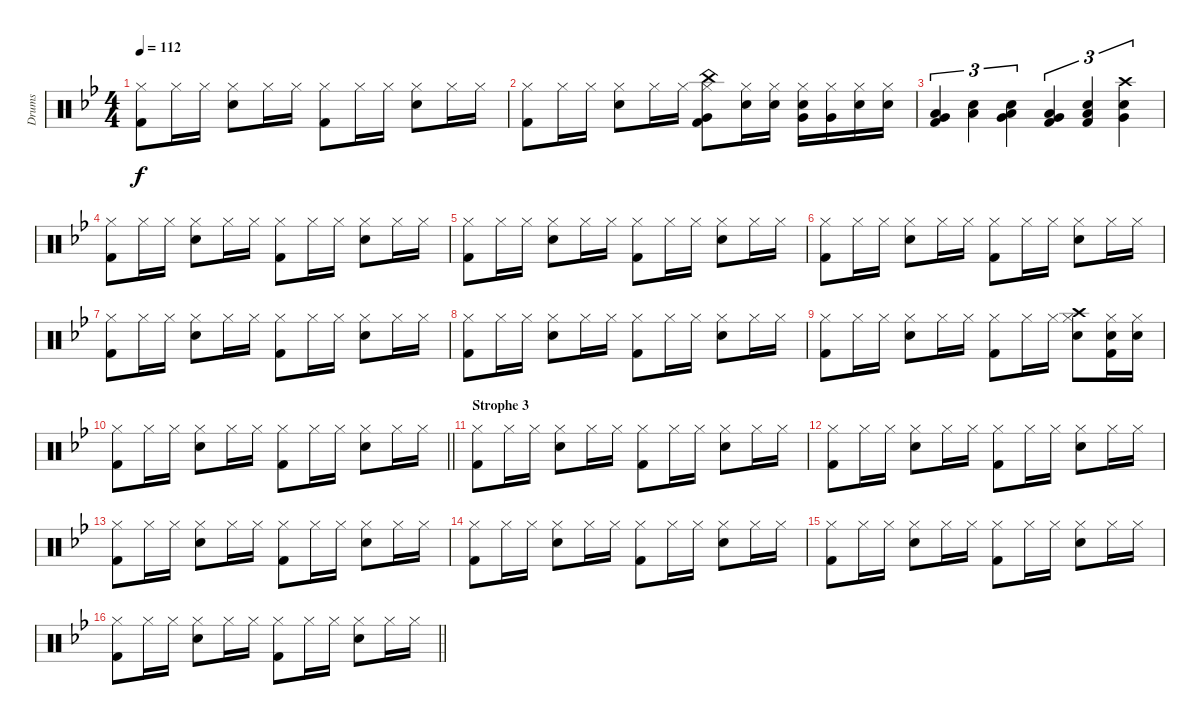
\track ("Drums" "Drums") {instrument percussion}
\staff {score}
\articulation defaults
\ts (4 4)
\tempo 112
\clef neutral
\ks bb
("Hi-Hat (closed)" "Kick (hit) 2").8{dy f} "Hi-Hat (closed)".16 "Hi-Hat (closed)".16 ("Snare (hit) 2" "Hi-Hat (closed)").8 "Hi-Hat (closed)".16 "Hi-Hat (closed)".16 ("Hi-Hat (closed)" "Kick (hit) 2").8 "Hi-Hat (closed)".16 "Hi-Hat (closed)".16 ("Snare (hit) 2" "Hi-Hat (closed)").8 "Hi-Hat (closed)".16 "Hi-Hat (closed)".16 |
("Hi-Hat (closed)" "Kick (hit) 2").8 "Hi-Hat (closed)".16 "Hi-Hat (closed)".16 ("Snare (hit) 2" "Hi-Hat (closed)").8 "Hi-Hat (closed)".16 "Hi-Hat (closed)".16 ("Hi-Hat (closed)" "Very Low Tom (hit)" "Kick (hit) 2" "China (hit)").8 ("Hi-Hat (closed)" "Snare (hit) 2").16 ("Hi-Hat (closed)" "Snare (hit) 2").16 ("Snare (hit) 2" "Hi-Hat (closed)" "Very Low Tom (hit)").16 ("Hi-Hat (closed)" "Very Low Tom (hit)").16 ("Hi-Hat (closed)" "Snare (hit) 2").16 ("Hi-Hat (closed)" "Snare (hit) 2").16 |
("Kick (hit) 2" "Low Floor Tom (hit)" "Very Low Tom (hit)").4{tu (3 2)} ("Low Floor Tom (hit)" "Snare (hit) 2").4{tu (3 2)} ("Very Low Tom (hit)" "Snare (hit) 2" "Low Floor Tom (hit)").4{tu (3 2)} ("Kick (hit) 2" "Low Floor Tom (hit)" "Very Low Tom (hit)").4{tu (3 2)} ("Low Floor Tom (hit)" "Kick (hit) 2" "Snare (hit) 2").4{tu (3 2)} ("Very Low Tom (hit)" "Snare (hit) 2" "Crash high (hit)").4{tu (3 2)} |
("Hi-Hat (closed)" "Kick (hit) 2").8 "Hi-Hat (closed)".16 "Hi-Hat (closed)".16 ("Snare (hit) 2" "Hi-Hat (closed)").8 "Hi-Hat (closed)".16 "Hi-Hat (closed)".16 ("Hi-Hat (closed)" "Kick (hit) 2").8 "Hi-Hat (closed)".16 "Hi-Hat (closed)".16 ("Snare (hit) 2" "Hi-Hat (closed)").8 "Hi-Hat (closed)".16 "Hi-Hat (closed)".16 |
("Hi-Hat (closed)" "Kick (hit) 2").8 "Hi-Hat (closed)".16 "Hi-Hat (closed)".16 ("Snare (hit) 2" "Hi-Hat (closed)").8 "Hi-Hat (closed)".16 "Hi-Hat (closed)".16 ("Hi-Hat (closed)" "Kick (hit) 2").8 "Hi-Hat (closed)".16 "Hi-Hat (closed)".16 ("Snare (hit) 2" "Hi-Hat (closed)").8 "Hi-Hat (closed)".16 "Hi-Hat (closed)".16 |
("Hi-Hat (closed)" "Kick (hit) 2").8 "Hi-Hat (closed)".16 "Hi-Hat (closed)".16 ("Snare (hit) 2" "Hi-Hat (closed)").8 "Hi-Hat (closed)".16 "Hi-Hat (closed)".16 ("Hi-Hat (closed)" "Kick (hit) 2").8 "Hi-Hat (closed)".16 "Hi-Hat (closed)".16 ("Snare (hit) 2" "Hi-Hat (closed)").8 "Hi-Hat (closed)".16 "Hi-Hat (closed)".16 |
("Hi-Hat (closed)" "Kick (hit) 2").8 "Hi-Hat (closed)".16 "Hi-Hat (closed)".16 ("Snare (hit) 2" "Hi-Hat (closed)").8 "Hi-Hat (closed)".16 "Hi-Hat (closed)".16 ("Hi-Hat (closed)" "Kick (hit) 2").8 "Hi-Hat (closed)".16 "Hi-Hat (closed)".16 ("Snare (hit) 2" "Hi-Hat (closed)").8 "Hi-Hat (closed)".16 "Hi-Hat (closed)".16 |
("Hi-Hat (closed)" "Kick (hit) 2").8 "Hi-Hat (closed)".16 "Hi-Hat (closed)".16 ("Snare (hit) 2" "Hi-Hat (closed)").8 "Hi-Hat (closed)".16 "Hi-Hat (closed)".16 ("Hi-Hat (closed)" "Kick (hit) 2").8 "Hi-Hat (closed)".16 "Hi-Hat (closed)".16 ("Snare (hit) 2" "Hi-Hat (closed)").8 "Hi-Hat (closed)".16 "Hi-Hat (closed)".16 |
("Hi-Hat (closed)" "Kick (hit) 2").8 "Hi-Hat (closed)".16 "Hi-Hat (closed)".16 ("Snare (hit) 2" "Hi-Hat (closed)").8 "Hi-Hat (closed)".16 "Hi-Hat (closed)".16 ("Hi-Hat (closed)" "Kick (hit) 2").8 "Hi-Hat (closed)".16 "Hi-Hat (closed)".16 ("Snare (hit) 2" "Hi-Hat (closed)" "Crash high (hit)").8 ("Hi-Hat (closed)" "Kick (hit) 2" "Snare (hit) 2").16 ("Hi-Hat (closed)" "Snare (hit) 2").16 |
\barLineRight lightlight
("Hi-Hat (closed)" "Kick (hit) 2").8 "Hi-Hat (closed)".16 "Hi-Hat (closed)".16 ("Snare (hit) 2" "Hi-Hat (closed)").8 "Hi-Hat (closed)".16 "Hi-Hat (closed)".16 ("Hi-Hat (closed)" "Kick (hit) 2").8 "Hi-Hat (closed)".16 "Hi-Hat (closed)".16 ("Snare (hit) 2" "Hi-Hat (closed)").8 "Hi-Hat (closed)".16 "Hi-Hat (closed)".16 |
\section ("" "Strophe 3")
("Hi-Hat (closed)" "Kick (hit) 2").8 "Hi-Hat (closed)".16 "Hi-Hat (closed)".16 ("Snare (hit) 2" "Hi-Hat (closed)").8 "Hi-Hat (closed)".16 "Hi-Hat (closed)".16 ("Hi-Hat (closed)" "Kick (hit) 2").8 "Hi-Hat (closed)".16 "Hi-Hat (closed)".16 ("Snare (hit) 2" "Hi-Hat (closed)").8 "Hi-Hat (closed)".16 "Hi-Hat (closed)".16 |
("Hi-Hat (closed)" "Kick (hit) 2").8 "Hi-Hat (closed)".16 "Hi-Hat (closed)".16 ("Snare (hit) 2" "Hi-Hat (closed)").8 "Hi-Hat (closed)".16 "Hi-Hat (closed)".16 ("Hi-Hat (closed)" "Kick (hit) 2").8 "Hi-Hat (closed)".16 "Hi-Hat (closed)".16 ("Snare (hit) 2" "Hi-Hat (closed)").8 "Hi-Hat (closed)".16 "Hi-Hat (closed)".16 |
("Hi-Hat (closed)" "Kick (hit) 2").8 "Hi-Hat (closed)".16 "Hi-Hat (closed)".16 ("Snare (hit) 2" "Hi-Hat (closed)").8 "Hi-Hat (closed)".16 "Hi-Hat (closed)".16 ("Hi-Hat (closed)" "Kick (hit) 2").8 "Hi-Hat (closed)".16 "Hi-Hat (closed)".16 ("Snare (hit) 2" "Hi-Hat (closed)").8 "Hi-Hat (closed)".16 "Hi-Hat (closed)".16 |
("Hi-Hat (closed)" "Kick (hit) 2").8 "Hi-Hat (closed)".16 "Hi-Hat (closed)".16 ("Snare (hit) 2" "Hi-Hat (closed)").8 "Hi-Hat (closed)".16 "Hi-Hat (closed)".16 ("Hi-Hat (closed)" "Kick (hit) 2").8 "Hi-Hat (closed)".16 "Hi-Hat (closed)".16 ("Snare (hit) 2" "Hi-Hat (closed)").8 "Hi-Hat (closed)".16 "Hi-Hat (closed)".16 |
("Hi-Hat (closed)" "Kick (hit) 2").8 "Hi-Hat (closed)".16 "Hi-Hat (closed)".16 ("Snare (hit) 2" "Hi-Hat (closed)").8 "Hi-Hat (closed)".16 "Hi-Hat (closed)".16 ("Hi-Hat (closed)" "Kick (hit) 2").8 "Hi-Hat (closed)".16 "Hi-Hat (closed)".16 ("Snare (hit) 2" "Hi-Hat (closed)").8 "Hi-Hat (closed)".16 "Hi-Hat (closed)".16 |
\barLineRight lightlight
("Hi-Hat (closed)" "Kick (hit) 2").8 "Hi-Hat (closed)".16 "Hi-Hat (closed)".16 ("Snare (hit) 2" "Hi-Hat (closed)").8 "Hi-Hat (closed)".16 "Hi-Hat (closed)".16 ("Hi-Hat (closed)" "Kick (hit) 2").8 "Hi-Hat (closed)".16 "Hi-Hat (closed)".16 ("Snare (hit) 2" "Hi-Hat (closed)").8 "Hi-Hat (closed)".16 "Hi-Hat (closed)".16
